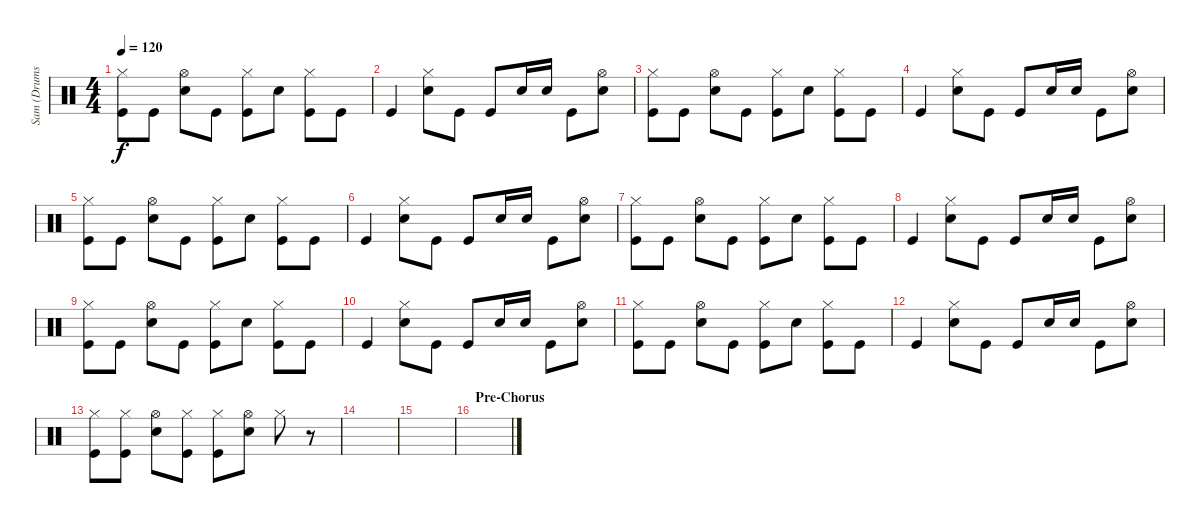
\track ("Sam (Drums)" "Sam (Drums") {instrument percussion}
\staff {score}
\articulation defaults
\ts (4 4)
\tempo 120
\clef neutral
\ks c
("Hi-Hat (closed)" "Kick (hit)").8{dy f} "Kick (hit)".8 ("Hi-Hat (open)" "Snare (hit) 2").8 "Kick (hit)".8 ("Hi-Hat (closed)" "Kick (hit)").8 "Snare (hit) 2".8 ("Hi-Hat (closed)" "Kick (hit)").8 "Kick (hit)".8 |
"Kick (hit)".4 ("Hi-Hat (closed)" "Snare (hit) 2").8 "Kick (hit)".8 "Kick (hit)".8 "Snare (hit) 2".16 "Snare (hit) 2".16 "Kick (hit)".8 ("Hi-Hat (open)" "Snare (hit) 2").8 |
("Hi-Hat (closed)" "Kick (hit)").8 "Kick (hit)".8 ("Hi-Hat (open)" "Snare (hit) 2").8 "Kick (hit)".8 ("Hi-Hat (closed)" "Kick (hit)").8 "Snare (hit) 2".8 ("Hi-Hat (closed)" "Kick (hit)").8 "Kick (hit)".8 |
"Kick (hit)".4 ("Hi-Hat (closed)" "Snare (hit) 2").8 "Kick (hit)".8 "Kick (hit)".8 "Snare (hit) 2".16 "Snare (hit) 2".16 "Kick (hit)".8 ("Hi-Hat (open)" "Snare (hit) 2").8 |
("Hi-Hat (closed)" "Kick (hit)").8 "Kick (hit)".8 ("Hi-Hat (open)" "Snare (hit) 2").8 "Kick (hit)".8 ("Hi-Hat (closed)" "Kick (hit)").8 "Snare (hit) 2".8 ("Hi-Hat (closed)" "Kick (hit)").8 "Kick (hit)".8 |
"Kick (hit)".4 ("Hi-Hat (closed)" "Snare (hit) 2").8 "Kick (hit)".8 "Kick (hit)".8 "Snare (hit) 2".16 "Snare (hit) 2".16 "Kick (hit)".8 ("Hi-Hat (open)" "Snare (hit) 2").8 |
("Hi-Hat (closed)" "Kick (hit)").8 "Kick (hit)".8 ("Hi-Hat (open)" "Snare (hit) 2").8 "Kick (hit)".8 ("Hi-Hat (closed)" "Kick (hit)").8 "Snare (hit) 2".8 ("Hi-Hat (closed)" "Kick (hit)").8 "Kick (hit)".8 |
"Kick (hit)".4 ("Hi-Hat (closed)" "Snare (hit) 2").8 "Kick (hit)".8 "Kick (hit)".8 "Snare (hit) 2".16 "Snare (hit) 2".16 "Kick (hit)".8 ("Hi-Hat (open)" "Snare (hit) 2").8 |
("Hi-Hat (closed)" "Kick (hit)").8 "Kick (hit)".8 ("Hi-Hat (open)" "Snare (hit) 2").8 "Kick (hit)".8 ("Hi-Hat (closed)" "Kick (hit)").8 "Snare (hit) 2".8 ("Hi-Hat (closed)" "Kick (hit)").8 "Kick (hit)".8 |
"Kick (hit)".4 ("Hi-Hat (closed)" "Snare (hit) 2").8 "Kick (hit)".8 "Kick (hit)".8 "Snare (hit) 2".16 "Snare (hit) 2".16 "Kick (hit)".8 ("Hi-Hat (open)" "Snare (hit) 2").8 |
("Hi-Hat (closed)" "Kick (hit)").8 "Kick (hit)".8 ("Hi-Hat (open)" "Snare (hit) 2").8 "Kick (hit)".8 ("Hi-Hat (closed)" "Kick (hit)").8 "Snare (hit) 2".8 ("Hi-Hat (closed)" "Kick (hit)").8 "Kick (hit)".8 |
"Kick (hit)".4 ("Hi-Hat (closed)" "Snare (hit) 2").8 "Kick (hit)".8 "Kick (hit)".8 "Snare (hit) 2".16 "Snare (hit) 2".16 "Kick (hit)".8 ("Hi-Hat (open)" "Snare (hit) 2").8 |
("Hi-Hat (closed)" "Kick (hit)").8 ("Hi-Hat (closed)" "Kick (hit)").8 ("Hi-Hat (open)" "Snare (hit) 2").8 ("Hi-Hat (closed)" "Kick (hit)").8 ("Hi-Hat (closed)" "Kick (hit)").8 ("Hi-Hat (open)" "Snare (hit) 2").8 "Hi-Hat (closed)".8 r.8 |
|
|
\section ("" "Pre-Chorus")
